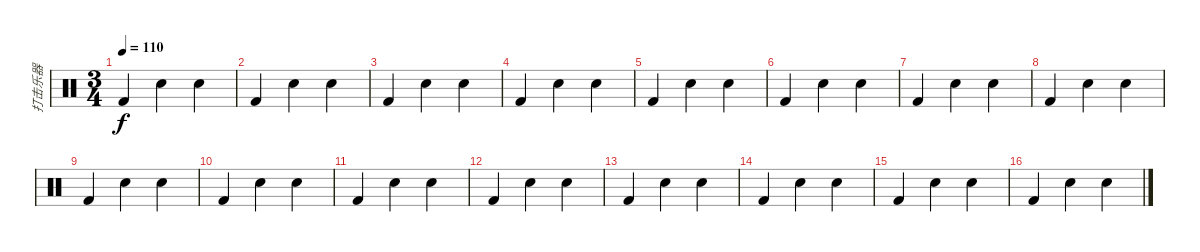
\track ("打击乐器" "打击乐器") {instrument percussion}
\staff {score}
\articulation defaults
\ts (3 4)
\tempo 110
\clef neutral
\ks c "Kick (hit) 2".4{dy f} "Snare (hit) 2".4 "Snare (hit) 2".4
|
"Kick (hit) 2".4 "Snare (hit) 2".4 "Snare (hit) 2".4 |
"Kick (hit) 2".4 "Snare (hit) 2".4 "Snare (hit) 2".4 |
"Kick (hit) 2".4 "Snare (hit) 2".4 "Snare (hit) 2".4 |
"Kick (hit) 2".4 "Snare (hit) 2".4 "Snare (hit) 2".4 |
"Kick (hit) 2".4 "Snare (hit) 2".4 "Snare (hit) 2".4 |
"Kick (hit) 2".4 "Snare (hit) 2".4 "Snare (hit) 2".4 |
"Kick (hit) 2".4 "Snare (hit) 2".4 "Snare (hit) 2".4 |
"Kick (hit) 2".4 "Snare (hit) 2".4 "Snare (hit) 2".4 |
"Kick (hit) 2".4 "Snare (hit) 2".4 "Snare (hit) 2".4 |
"Kick (hit) 2".4 "Snare (hit) 2".4 "Snare (hit) 2".4 |
"Kick (hit) 2".4 "Snare (hit) 2".4 "Snare (hit) 2".4 |
"Kick (hit) 2".4 "Snare (hit) 2".4 "Snare (hit) 2".4 |
"Kick (hit) 2".4 "Snare (hit) 2".4 "Snare (hit) 2".4 |
"Kick (hit) 2".4 "Snare (hit) 2".4 "Snare (hit) 2".4 |
"Kick (hit) 2".4 "Snare (hit) 2".4 "Snare (hit) 2".4
